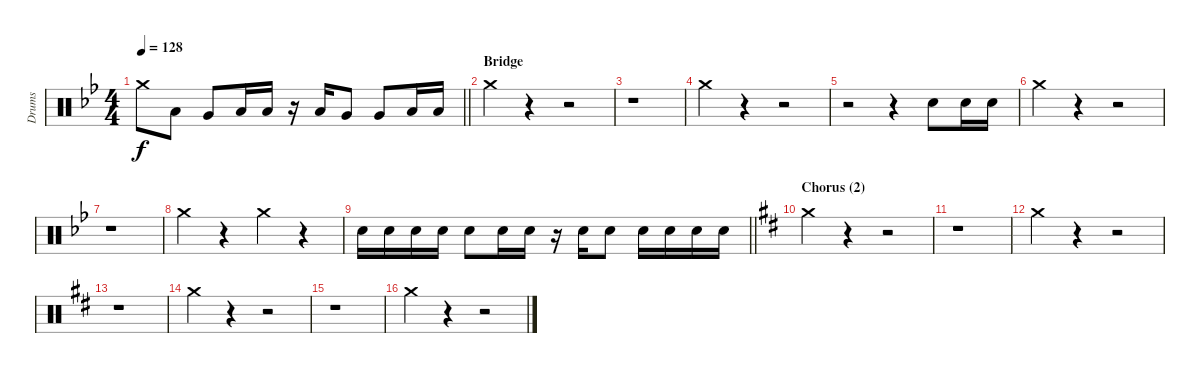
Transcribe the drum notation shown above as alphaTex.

\track ("Drums" "Drums") {instrument percussion}
\staff {score}
\articulation defaults
\ts (4 4)
\tempo 128
\clef neutral
\barLineRight lightlight
\ks gminor "Crash medium (hit)".8{dy f} "Low Tom (hit)".8 "Very Low Tom (hit)".8 "Low Tom (hit)".16 "Low Tom (hit)".16
r.16 "Low Tom (hit)".16 "Very Low Tom (hit)".8 "Very Low Tom (hit)".8 "Low Floor Tom (hit)".16 "Low Floor Tom (hit)".16 |
\section ("" "Bridge")
"Crash medium (hit)".4 r.4 r.2 |
r.1 |
"Crash medium (hit)".4 r.4 r.2 |
r.2 r.4 "Electric Snare (hit)".8 "Electric Snare (hit)".16 "Electric Snare (hit)".16 |
"Crash medium (hit)".4 r.4 r.2 |
r.1 |
"Crash medium (hit)".4 r.4 "Crash medium (hit)".4 r.4 |
\barLineRight lightlight "Electric Snare (hit)".16 "Electric Snare (hit)".16 "Electric Snare (hit)".16 "Electric Snare (hit)".16 "Electric Snare (hit)".8 "Electric Snare (hit)".16 "Electric Snare (hit)".16
r.16 "Electric Snare (hit)".16 "Electric Snare (hit)".8 "Electric Snare (hit)".16 "Electric Snare (hit)".16 "Electric Snare (hit)".16 "Electric Snare (hit)".16 |
\section ("" "Chorus (2)")
\ks d "Crash medium (hit)".4
r.4 r.2 |
r.1 |
"Crash medium (hit)".4 r.4 r.2 |
r.1 |
"Crash medium (hit)".4 r.4 r.2 |
r.1 |
"Crash medium (hit)".4 r.4 r.2
